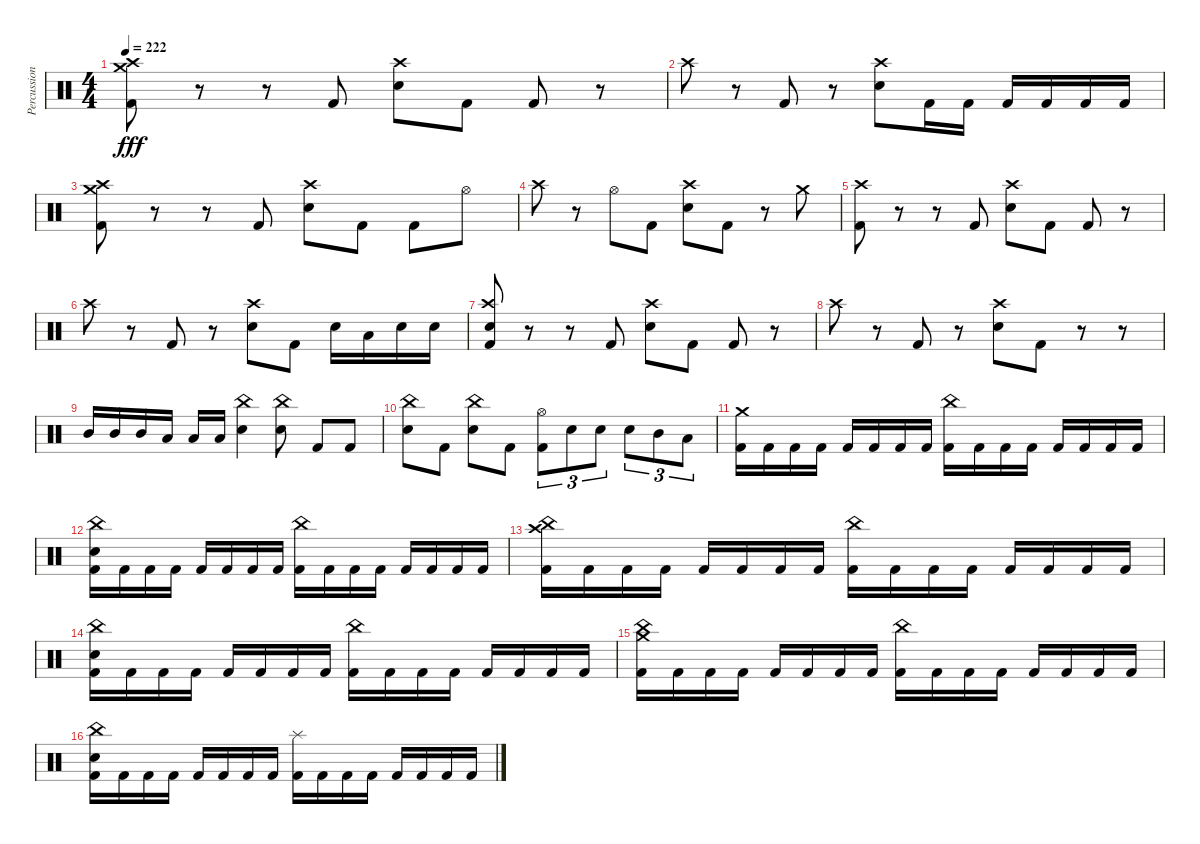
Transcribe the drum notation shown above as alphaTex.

\track ("Percussion" "Percussion") {instrument percussion}
\staff {score}
\articulation defaults
\ts (4 4)
\tempo 222
\clef neutral
\ks c
("Kick (hit) 2" "Crash medium (hit)" "Crash high (hit)").8{dy fff} r.8 r.8 "Kick (hit) 2".8 ("Electric Snare (hit)" "Crash high (hit)").8 "Kick (hit) 2".8 "Kick (hit) 2".8 r.8 |
"Crash high (hit)".8 r.8 "Kick (hit) 2".8 r.8 ("Electric Snare (hit)" "Crash high (hit)").8 "Kick (hit) 2".16 "Kick (hit) 2".16 "Kick (hit) 2".16 "Kick (hit) 2".16 "Kick (hit) 2".16 "Kick (hit) 2".16 |
("Kick (hit) 2" "Crash medium (hit)" "Crash high (hit)").8 r.8 r.8 "Kick (hit) 2".8 ("Electric Snare (hit)" "Crash high (hit)").8 "Kick (hit) 2".8 "Kick (hit) 2".8 "Hi-Hat (open)".8 |
"Crash high (hit)".8 r.8 "Hi-Hat (open)".8 "Kick (hit) 2".8 ("Electric Snare (hit)" "Crash high (hit)").8 "Kick (hit) 2".8 r.8 "Crash medium (hit)".8 |
("Kick (hit) 2" "Crash high (hit)").8 r.8 r.8 "Kick (hit) 2".8 ("Electric Snare (hit)" "Crash high (hit)").8 "Kick (hit) 2".8 "Kick (hit) 2".8 r.8 |
"Crash high (hit)".8 r.8 "Kick (hit) 2".8 r.8 ("Electric Snare (hit)" "Crash high (hit)").8 "Kick (hit) 2".8 "Electric Snare (hit)".16 "Low Floor Tom (hit)".16 "Electric Snare (hit)".16 "Electric Snare (hit)".16 |
("Kick (hit) 2" "Electric Snare (hit)" "Crash high (hit)").8 r.8 r.8 "Kick (hit) 2".8 ("Electric Snare (hit)" "Crash high (hit)").8 "Kick (hit) 2".8 "Kick (hit) 2".8 r.8 |
"Crash high (hit)".8 r.8 "Kick (hit) 2".8 r.8 ("Electric Snare (hit)" "Crash high (hit)").8 "Kick (hit) 2".8 r.8 r.8 |
"Mid Tom (hit)".16 "Mid Tom (hit)".16 "Mid Tom (hit)".16 "Low Tom (hit)".16 "Low Tom (hit)".16 "Low Tom (hit)".16 ("Electric Snare (hit)" "China (hit)").4 ("Electric Snare (hit)" "China (hit)").8 "Kick (hit) 2".8 "Kick (hit) 2".8 |
("Electric Snare (hit)" "China (hit)").8 "Kick (hit) 2".8 ("Electric Snare (hit)" "China (hit)").8 "Kick (hit) 2".8 ("Kick (hit) 2" "Hi-Hat (open)").8{tu (3 2)} "Electric Snare (hit)".8{tu (3 2)} "Electric Snare (hit)".8{tu (3 2)} "Electric Snare (hit)".8{tu (3 2)} "Mid Tom (hit)".8{tu (3 2)} "Low Tom (hit)".8{tu (3 2)} |
("Kick (hit) 2" "Crash medium (hit)").16 "Kick (hit) 2".16 "Kick (hit) 2".16 "Kick (hit) 2".16 "Kick (hit) 2".16 "Kick (hit) 2".16 "Kick (hit) 2".16 "Kick (hit) 2".16 ("Kick (hit) 2" "China (hit)").16 "Kick (hit) 2".16 "Kick (hit) 2".16 "Kick (hit) 2".16 "Kick (hit) 2".16 "Kick (hit) 2".16 "Kick (hit) 2".16 "Kick (hit) 2".16 |
("Kick (hit) 2" "Electric Snare (hit)" "China (hit)").16 "Kick (hit) 2".16 "Kick (hit) 2".16 "Kick (hit) 2".16 "Kick (hit) 2".16 "Kick (hit) 2".16 "Kick (hit) 2".16 "Kick (hit) 2".16 ("Kick (hit) 2" "China (hit)").16 "Kick (hit) 2".16 "Kick (hit) 2".16 "Kick (hit) 2".16 "Kick (hit) 2".16 "Kick (hit) 2".16 "Kick (hit) 2".16 "Kick (hit) 2".16 |
("Kick (hit) 2" "Crash high (hit)" "China (hit)").16 "Kick (hit) 2".16 "Kick (hit) 2".16 "Kick (hit) 2".16 "Kick (hit) 2".16 "Kick (hit) 2".16 "Kick (hit) 2".16 "Kick (hit) 2".16 ("Kick (hit) 2" "China (hit)").16 "Kick (hit) 2".16 "Kick (hit) 2".16 "Kick (hit) 2".16 "Kick (hit) 2".16 "Kick (hit) 2".16 "Kick (hit) 2".16 "Kick (hit) 2".16 |
("Kick (hit) 2" "Electric Snare (hit)" "China (hit)").16 "Kick (hit) 2".16 "Kick (hit) 2".16 "Kick (hit) 2".16 "Kick (hit) 2".16 "Kick (hit) 2".16 "Kick (hit) 2".16 "Kick (hit) 2".16 ("Kick (hit) 2" "China (hit)").16 "Kick (hit) 2".16 "Kick (hit) 2".16 "Kick (hit) 2".16 "Kick (hit) 2".16 "Kick (hit) 2".16 "Kick (hit) 2".16 "Kick (hit) 2".16 |
("Kick (hit) 2" "Crash medium (hit)" "China (hit)").16 "Kick (hit) 2".16 "Kick (hit) 2".16 "Kick (hit) 2".16 "Kick (hit) 2".16 "Kick (hit) 2".16 "Kick (hit) 2".16 "Kick (hit) 2".16 ("Kick (hit) 2" "China (hit)").16 "Kick (hit) 2".16 "Kick (hit) 2".16 "Kick (hit) 2".16 "Kick (hit) 2".16 "Kick (hit) 2".16 "Kick (hit) 2".16 "Kick (hit) 2".16 |
("Kick (hit) 2" "Electric Snare (hit)" "China (hit)").16 "Kick (hit) 2".16 "Kick (hit) 2".16 "Kick (hit) 2".16 "Kick (hit) 2".16 "Kick (hit) 2".16 "Kick (hit) 2".16 "Kick (hit) 2".16 ("Kick (hit) 2" "Splash (hit)").16 "Kick (hit) 2".16 "Kick (hit) 2".16 "Kick (hit) 2".16 "Kick (hit) 2".16 "Kick (hit) 2".16 "Kick (hit) 2".16 "Kick (hit) 2".16
